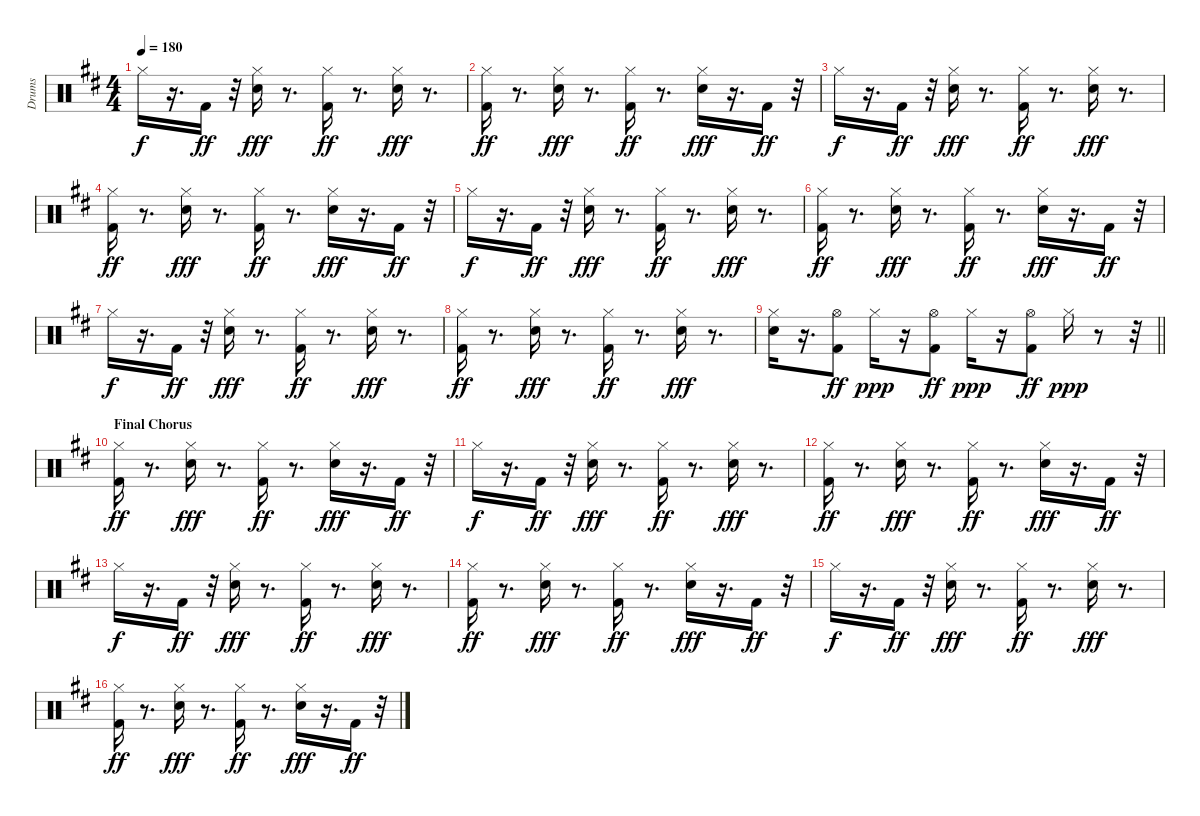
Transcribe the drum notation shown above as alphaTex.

\track ("Drums" "Drums") {instrument percussion}
\staff {score}
\articulation defaults
\ts (4 4)
\tempo 180
\clef neutral
\ks bminor "Hi-Hat (closed)".16{dy f}
r.16{d} "Kick (hit) 2".16{dy ff} r.32 ("Snare (hit) 2" "Hi-Hat (closed)").16{dy fff} r.8{d} ("Kick (hit) 2" "Hi-Hat (closed)").16{dy ff} r.8{d} ("Snare (hit) 2" "Hi-Hat (closed)").16{dy fff} r.8{d} |
("Kick (hit) 2" "Hi-Hat (closed)").16{dy ff} r.8{d} ("Snare (hit) 2" "Hi-Hat (closed)").16{dy fff} r.8{d} ("Kick (hit) 2" "Hi-Hat (closed)").16{dy ff} r.8{d} ("Snare (hit) 2" "Hi-Hat (closed)").16{dy fff} r.16{d} "Kick (hit) 2".16{dy ff} r.32 |
"Hi-Hat (closed)".16{dy f} r.16{d} "Kick (hit) 2".16{dy ff} r.32 ("Snare (hit) 2" "Hi-Hat (closed)").16{dy fff} r.8{d} ("Kick (hit) 2" "Hi-Hat (closed)").16{dy ff} r.8{d} ("Snare (hit) 2" "Hi-Hat (closed)").16{dy fff} r.8{d} |
("Kick (hit) 2" "Hi-Hat (closed)").16{dy ff} r.8{d} ("Snare (hit) 2" "Hi-Hat (closed)").16{dy fff} r.8{d} ("Kick (hit) 2" "Hi-Hat (closed)").16{dy ff} r.8{d} ("Snare (hit) 2" "Hi-Hat (closed)").16{dy fff} r.16{d} "Kick (hit) 2".16{dy ff} r.32 |
"Hi-Hat (closed)".16{dy f} r.16{d} "Kick (hit) 2".16{dy ff} r.32 ("Snare (hit) 2" "Hi-Hat (closed)").16{dy fff} r.8{d} ("Kick (hit) 2" "Hi-Hat (closed)").16{dy ff} r.8{d} ("Snare (hit) 2" "Hi-Hat (closed)").16{dy fff} r.8{d} |
("Kick (hit) 2" "Hi-Hat (closed)").16{dy ff} r.8{d} ("Snare (hit) 2" "Hi-Hat (closed)").16{dy fff} r.8{d} ("Kick (hit) 2" "Hi-Hat (closed)").16{dy ff} r.8{d} ("Snare (hit) 2" "Hi-Hat (closed)").16{dy fff} r.16{d} "Kick (hit) 2".16{dy ff} r.32 |
"Hi-Hat (closed)".16{dy f} r.16{d} "Kick (hit) 2".16{dy ff} r.32 ("Snare (hit) 2" "Hi-Hat (closed)").16{dy fff} r.8{d} ("Kick (hit) 2" "Hi-Hat (closed)").16{dy ff} r.8{d} ("Snare (hit) 2" "Hi-Hat (closed)").16{dy fff} r.8{d} |
("Kick (hit) 2" "Hi-Hat (closed)").16{dy ff} r.8{d} ("Snare (hit) 2" "Hi-Hat (closed)").16{dy fff} r.8{d} ("Kick (hit) 2" "Hi-Hat (closed)").16{dy ff} r.8{d} ("Snare (hit) 2" "Hi-Hat (closed)").16{dy fff} r.8{d} |
\barLineRight lightlight
("Electric Snare (hit)" "Hi-Hat (closed)").16 r.16{d} ("Kick (hit) 2" "Hi-Hat (open)").8{dy ff} "Hi-Hat (closed)".16{dy ppp} r.16 ("Kick (hit) 2" "Hi-Hat (open)").8{dy ff} "Hi-Hat (closed)".16{dy ppp} r.16 ("Kick (hit) 2" "Hi-Hat (open)").8{dy ff} "Hi-Hat (closed)".16{dy ppp} r.8 r.32 |
\section ("" "Final Chorus")
("Kick (hit) 2" "Hi-Hat (closed)").16{dy ff} r.8{d} ("Snare (hit) 2" "Hi-Hat (closed)").16{dy fff} r.8{d} ("Kick (hit) 2" "Hi-Hat (closed)").16{dy ff} r.8{d} ("Snare (hit) 2" "Hi-Hat (closed)").16{dy fff} r.16{d} "Kick (hit) 2".16{dy ff} r.32 |
"Hi-Hat (closed)".16{dy f} r.16{d} "Kick (hit) 2".16{dy ff} r.32 ("Snare (hit) 2" "Hi-Hat (closed)").16{dy fff} r.8{d} ("Kick (hit) 2" "Hi-Hat (closed)").16{dy ff} r.8{d} ("Snare (hit) 2" "Hi-Hat (closed)").16{dy fff} r.8{d} |
("Kick (hit) 2" "Hi-Hat (closed)").16{dy ff} r.8{d} ("Snare (hit) 2" "Hi-Hat (closed)").16{dy fff} r.8{d} ("Kick (hit) 2" "Hi-Hat (closed)").16{dy ff} r.8{d} ("Snare (hit) 2" "Hi-Hat (closed)").16{dy fff} r.16{d} "Kick (hit) 2".16{dy ff} r.32 |
"Hi-Hat (closed)".16{dy f} r.16{d} "Kick (hit) 2".16{dy ff} r.32 ("Snare (hit) 2" "Hi-Hat (closed)").16{dy fff} r.8{d} ("Kick (hit) 2" "Hi-Hat (closed)").16{dy ff} r.8{d} ("Snare (hit) 2" "Hi-Hat (closed)").16{dy fff} r.8{d} |
("Kick (hit) 2" "Hi-Hat (closed)").16{dy ff} r.8{d} ("Snare (hit) 2" "Hi-Hat (closed)").16{dy fff} r.8{d} ("Kick (hit) 2" "Hi-Hat (closed)").16{dy ff} r.8{d} ("Snare (hit) 2" "Hi-Hat (closed)").16{dy fff} r.16{d} "Kick (hit) 2".16{dy ff} r.32 |
"Hi-Hat (closed)".16{dy f} r.16{d} "Kick (hit) 2".16{dy ff} r.32 ("Snare (hit) 2" "Hi-Hat (closed)").16{dy fff} r.8{d} ("Kick (hit) 2" "Hi-Hat (closed)").16{dy ff} r.8{d} ("Snare (hit) 2" "Hi-Hat (closed)").16{dy fff} r.8{d} |
("Kick (hit) 2" "Hi-Hat (closed)").16{dy ff} r.8{d} ("Snare (hit) 2" "Hi-Hat (closed)").16{dy fff} r.8{d} ("Kick (hit) 2" "Hi-Hat (closed)").16{dy ff} r.8{d} ("Snare (hit) 2" "Hi-Hat (closed)").16{dy fff} r.16{d} "Kick (hit) 2".16{dy ff} r.32
